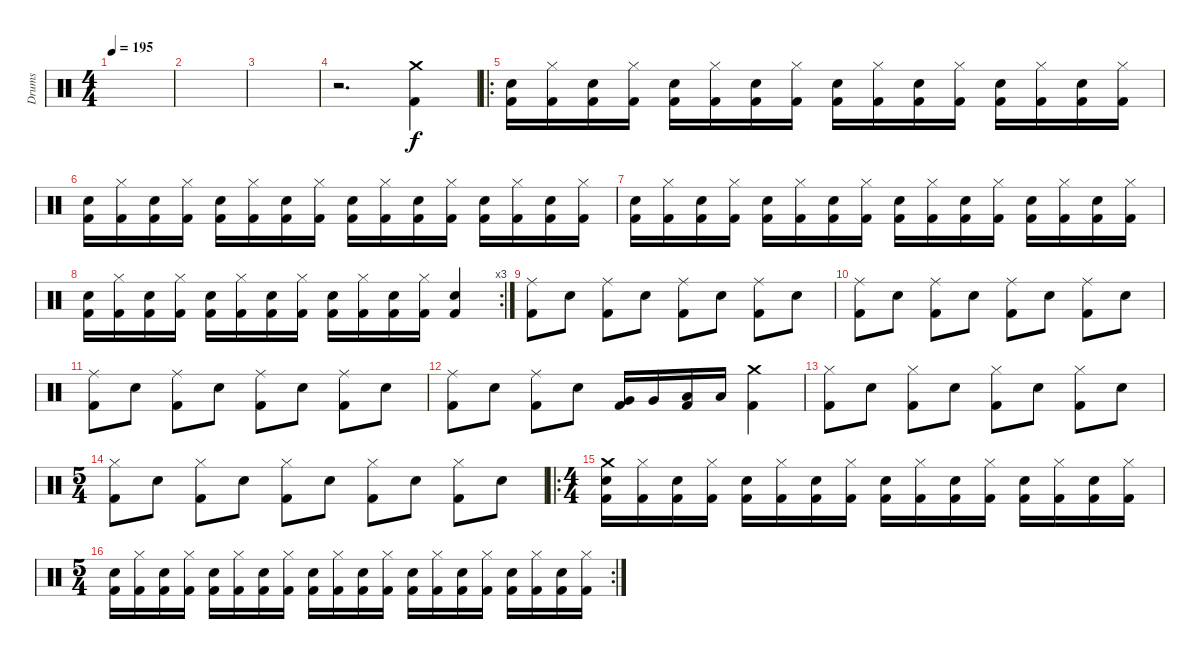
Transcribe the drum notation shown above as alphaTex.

\track ("Drums" "Drums") {instrument percussion}
\staff {score}
\articulation defaults
\ts (4 4)
\tempo 195
\clef neutral
\ks c
|
|
|
r.2{d} ("Crash medium (hit)" "Kick (hit) 2").4 |
\ro
("Kick (hit) 2" "Snare (hit) 2").16 ("Hi-Hat (closed)" "Kick (hit) 2").16 ("Kick (hit) 2" "Snare (hit) 2").16 ("Hi-Hat (closed)" "Kick (hit) 2").16 ("Kick (hit) 2" "Snare (hit) 2").16 ("Hi-Hat (closed)" "Kick (hit) 2").16 ("Kick (hit) 2" "Snare (hit) 2").16 ("Hi-Hat (closed)" "Kick (hit) 2").16 ("Kick (hit) 2" "Snare (hit) 2").16 ("Hi-Hat (closed)" "Kick (hit) 2").16 ("Kick (hit) 2" "Snare (hit) 2").16 ("Hi-Hat (closed)" "Kick (hit) 2").16 ("Kick (hit) 2" "Snare (hit) 2").16 ("Hi-Hat (closed)" "Kick (hit) 2").16 ("Kick (hit) 2" "Snare (hit) 2").16 ("Hi-Hat (closed)" "Kick (hit) 2").16 |
("Kick (hit) 2" "Snare (hit) 2").16 ("Hi-Hat (closed)" "Kick (hit) 2").16 ("Kick (hit) 2" "Snare (hit) 2").16 ("Hi-Hat (closed)" "Kick (hit) 2").16 ("Kick (hit) 2" "Snare (hit) 2").16 ("Hi-Hat (closed)" "Kick (hit) 2").16 ("Kick (hit) 2" "Snare (hit) 2").16 ("Hi-Hat (closed)" "Kick (hit) 2").16 ("Kick (hit) 2" "Snare (hit) 2").16 ("Hi-Hat (closed)" "Kick (hit) 2").16 ("Kick (hit) 2" "Snare (hit) 2").16 ("Hi-Hat (closed)" "Kick (hit) 2").16 ("Kick (hit) 2" "Snare (hit) 2").16 ("Hi-Hat (closed)" "Kick (hit) 2").16 ("Kick (hit) 2" "Snare (hit) 2").16 ("Hi-Hat (closed)" "Kick (hit) 2").16 |
("Kick (hit) 2" "Snare (hit) 2").16 ("Hi-Hat (closed)" "Kick (hit) 2").16 ("Kick (hit) 2" "Snare (hit) 2").16 ("Hi-Hat (closed)" "Kick (hit) 2").16 ("Kick (hit) 2" "Snare (hit) 2").16 ("Hi-Hat (closed)" "Kick (hit) 2").16 ("Kick (hit) 2" "Snare (hit) 2").16 ("Hi-Hat (closed)" "Kick (hit) 2").16 ("Kick (hit) 2" "Snare (hit) 2").16 ("Hi-Hat (closed)" "Kick (hit) 2").16 ("Kick (hit) 2" "Snare (hit) 2").16 ("Hi-Hat (closed)" "Kick (hit) 2").16 ("Kick (hit) 2" "Snare (hit) 2").16 ("Hi-Hat (closed)" "Kick (hit) 2").16 ("Kick (hit) 2" "Snare (hit) 2").16 ("Hi-Hat (closed)" "Kick (hit) 2").16 |
\rc 3
("Kick (hit) 2" "Snare (hit) 2").16 ("Hi-Hat (closed)" "Kick (hit) 2").16 ("Kick (hit) 2" "Snare (hit) 2").16 ("Hi-Hat (closed)" "Kick (hit) 2").16 ("Kick (hit) 2" "Snare (hit) 2").16 ("Hi-Hat (closed)" "Kick (hit) 2").16 ("Kick (hit) 2" "Snare (hit) 2").16 ("Hi-Hat (closed)" "Kick (hit) 2").16 ("Kick (hit) 2" "Snare (hit) 2").16 ("Hi-Hat (closed)" "Kick (hit) 2").16 ("Kick (hit) 2" "Snare (hit) 2").16 ("Hi-Hat (closed)" "Kick (hit) 2").16 ("Kick (hit) 2" "Snare (hit) 2").4 |
("Ride (middle)" "Kick (hit) 2").8 "Snare (hit) 2".8 ("Ride (middle)" "Kick (hit) 2").8 "Snare (hit) 2".8 ("Ride (middle)" "Kick (hit) 2").8 "Snare (hit) 2".8 ("Ride (middle)" "Kick (hit) 2").8 "Snare (hit) 2".8 |
("Ride (middle)" "Kick (hit) 2").8 "Snare (hit) 2".8 ("Ride (middle)" "Kick (hit) 2").8 "Snare (hit) 2".8 ("Ride (middle)" "Kick (hit) 2").8 "Snare (hit) 2".8 ("Ride (middle)" "Kick (hit) 2").8 "Snare (hit) 2".8 |
("Ride (middle)" "Kick (hit) 2").8 "Snare (hit) 2".8 ("Ride (middle)" "Kick (hit) 2").8 "Snare (hit) 2".8 ("Ride (middle)" "Kick (hit) 2").8 "Snare (hit) 2".8 ("Ride (middle)" "Kick (hit) 2").8 "Snare (hit) 2".8 |
("Ride (middle)" "Kick (hit) 2").8 "Snare (hit) 2".8 ("Ride (middle)" "Kick (hit) 2").8 "Snare (hit) 2".8 ("Kick (hit) 2" "Very Low Tom (hit)").16 "Very Low Tom (hit)".16 ("Kick (hit) 2" "Low Floor Tom (hit)").16 "Low Floor Tom (hit)".16 ("Crash medium (hit)" "Kick (hit) 2").4 |
("Hi-Hat (closed)" "Kick (hit) 2").8 "Snare (hit) 2".8 ("Hi-Hat (closed)" "Kick (hit) 2").8 "Snare (hit) 2".8 ("Hi-Hat (closed)" "Kick (hit) 2").8 "Snare (hit) 2".8 ("Hi-Hat (closed)" "Kick (hit) 2").8 "Snare (hit) 2".8 |
\ts (5 4)
("Hi-Hat (closed)" "Kick (hit) 2").8 "Snare (hit) 2".8 ("Hi-Hat (closed)" "Kick (hit) 2").8 "Snare (hit) 2".8 ("Hi-Hat (closed)" "Kick (hit) 2").8 "Snare (hit) 2".8 ("Hi-Hat (closed)" "Kick (hit) 2").8 "Snare (hit) 2".8 ("Hi-Hat (closed)" "Kick (hit) 2").8 "Snare (hit) 2".8 |
\ro
\ts (4 4)
("Crash medium (hit)" "Kick (hit) 2" "Snare (hit) 2").16 ("Hi-Hat (closed)" "Kick (hit) 2").16 ("Kick (hit) 2" "Snare (hit) 2").16 ("Hi-Hat (closed)" "Kick (hit) 2").16 ("Kick (hit) 2" "Snare (hit) 2").16 ("Hi-Hat (closed)" "Kick (hit) 2").16 ("Kick (hit) 2" "Snare (hit) 2").16 ("Hi-Hat (closed)" "Kick (hit) 2").16 ("Kick (hit) 2" "Snare (hit) 2").16 ("Hi-Hat (closed)" "Kick (hit) 2").16 ("Kick (hit) 2" "Snare (hit) 2").16 ("Hi-Hat (closed)" "Kick (hit) 2").16 ("Kick (hit) 2" "Snare (hit) 2").16 ("Hi-Hat (closed)" "Kick (hit) 2").16 ("Kick (hit) 2" "Snare (hit) 2").16 ("Hi-Hat (closed)" "Kick (hit) 2").16 |
\rc 2
\ts (5 4)
("Kick (hit) 2" "Snare (hit) 2").16 ("Hi-Hat (closed)" "Kick (hit) 2").16 ("Kick (hit) 2" "Snare (hit) 2").16 ("Hi-Hat (closed)" "Kick (hit) 2").16 ("Kick (hit) 2" "Snare (hit) 2").16 ("Hi-Hat (closed)" "Kick (hit) 2").16 ("Kick (hit) 2" "Snare (hit) 2").16 ("Hi-Hat (closed)" "Kick (hit) 2").16 ("Kick (hit) 2" "Snare (hit) 2").16 ("Hi-Hat (closed)" "Kick (hit) 2").16 ("Kick (hit) 2" "Snare (hit) 2").16 ("Hi-Hat (closed)" "Kick (hit) 2").16 ("Kick (hit) 2" "Snare (hit) 2").16 ("Hi-Hat (closed)" "Kick (hit) 2").16 ("Kick (hit) 2" "Snare (hit) 2").16 ("Hi-Hat (closed)" "Kick (hit) 2").16 ("Kick (hit) 2" "Snare (hit) 2").16 ("Hi-Hat (closed)" "Kick (hit) 2").16 ("Kick (hit) 2" "Snare (hit) 2").16 ("Hi-Hat (closed)" "Kick (hit) 2").16
